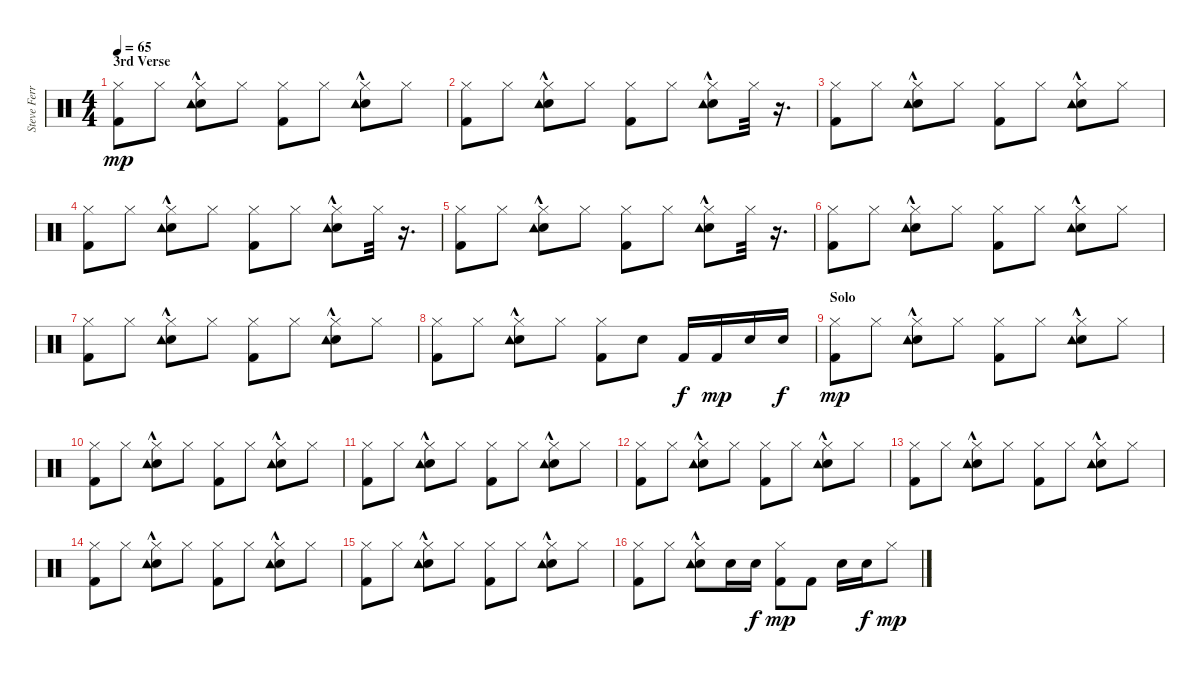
\track ("Steve Ferrone & Ray Cooper" "Steve Ferr") {instrument percussion}
\staff {score}
\articulation defaults
\ts (4 4)
\section ("" "3rd Verse")
\tempo 65
\clef neutral
\ks c
("Kick (hit) 2" "Hi-Hat (closed)").8{dy mp} "Hi-Hat (closed)".8 ("Hi-Hat (closed)" "Snare (hit) 2"{hac} "Tambourine (hit)"{hac}).8 "Hi-Hat (closed)".8 ("Kick (hit) 2" "Hi-Hat (closed)").8 "Hi-Hat (closed)".8 ("Hi-Hat (closed)" "Snare (hit) 2" "Tambourine (hit)"{hac}).8 "Hi-Hat (closed)".8 |
("Kick (hit) 2" "Hi-Hat (closed)").8 "Hi-Hat (closed)".8 ("Hi-Hat (closed)" "Snare (hit) 2"{hac} "Tambourine (hit)"{hac}).8 "Hi-Hat (closed)".8 ("Kick (hit) 2" "Hi-Hat (closed)").8 "Hi-Hat (closed)".8 ("Hi-Hat (closed)" "Snare (hit) 2" "Tambourine (hit)"{hac}).8 "Hi-Hat (closed)".32 r.16{d} |
("Kick (hit) 2" "Hi-Hat (closed)").8 "Hi-Hat (closed)".8 ("Hi-Hat (closed)" "Snare (hit) 2"{hac} "Tambourine (hit)"{hac}).8 "Hi-Hat (closed)".8 ("Kick (hit) 2" "Hi-Hat (closed)").8 "Hi-Hat (closed)".8 ("Hi-Hat (closed)" "Snare (hit) 2" "Tambourine (hit)"{hac}).8 "Hi-Hat (closed)".8 |
("Kick (hit) 2" "Hi-Hat (closed)").8 "Hi-Hat (closed)".8 ("Hi-Hat (closed)" "Snare (hit) 2"{hac} "Tambourine (hit)"{hac}).8 "Hi-Hat (closed)".8 ("Kick (hit) 2" "Hi-Hat (closed)").8 "Hi-Hat (closed)".8 ("Hi-Hat (closed)" "Snare (hit) 2" "Tambourine (hit)"{hac}).8 "Hi-Hat (closed)".32 r.16{d} |
("Kick (hit) 2" "Hi-Hat (closed)").8 "Hi-Hat (closed)".8 ("Hi-Hat (closed)" "Snare (hit) 2"{hac} "Tambourine (hit)"{hac}).8 "Hi-Hat (closed)".8 ("Kick (hit) 2" "Hi-Hat (closed)").8 "Hi-Hat (closed)".8 ("Hi-Hat (closed)" "Snare (hit) 2" "Tambourine (hit)"{hac}).8 "Hi-Hat (closed)".32 r.16{d} |
("Kick (hit) 2" "Hi-Hat (closed)").8 "Hi-Hat (closed)".8 ("Hi-Hat (closed)" "Snare (hit) 2"{hac} "Tambourine (hit)"{hac}).8 "Hi-Hat (closed)".8 ("Kick (hit) 2" "Hi-Hat (closed)").8 "Hi-Hat (closed)".8 ("Hi-Hat (closed)" "Snare (hit) 2" "Tambourine (hit)"{hac}).8 "Hi-Hat (closed)".8 |
("Kick (hit) 2" "Hi-Hat (closed)").8 "Hi-Hat (closed)".8 ("Hi-Hat (closed)" "Snare (hit) 2"{hac} "Tambourine (hit)"{hac}).8 "Hi-Hat (closed)".8 ("Kick (hit) 2" "Hi-Hat (closed)").8 "Hi-Hat (closed)".8 ("Hi-Hat (closed)" "Snare (hit) 2" "Tambourine (hit)"{hac}).8 "Hi-Hat (closed)".8 |
("Kick (hit) 2" "Hi-Hat (closed)").8 "Hi-Hat (closed)".8 ("Hi-Hat (closed)" "Snare (hit) 2"{hac} "Tambourine (hit)"{hac}).8 "Hi-Hat (closed)".8 ("Kick (hit) 2" "Hi-Hat (closed)").8 "Snare (hit) 2".8 "Kick (hit) 2".16{dy f} "Kick (hit) 2".16{dy mp} "Snare (hit) 2".16 "Snare (hit) 2".16{dy f} |
\section ("" "Solo")
("Kick (hit) 2" "Hi-Hat (closed)").8{dy mp} "Hi-Hat (closed)".8 ("Hi-Hat (closed)" "Snare (hit) 2"{hac} "Tambourine (hit)"{hac}).8 "Hi-Hat (closed)".8 ("Kick (hit) 2" "Hi-Hat (closed)").8 "Hi-Hat (closed)".8 ("Hi-Hat (closed)" "Snare (hit) 2" "Tambourine (hit)"{hac}).8 "Hi-Hat (closed)".8 |
("Kick (hit) 2" "Hi-Hat (closed)").8 "Hi-Hat (closed)".8 ("Hi-Hat (closed)" "Snare (hit) 2"{hac} "Tambourine (hit)"{hac}).8 "Hi-Hat (closed)".8 ("Kick (hit) 2" "Hi-Hat (closed)").8 "Hi-Hat (closed)".8 ("Hi-Hat (closed)" "Snare (hit) 2" "Tambourine (hit)"{hac}).8 "Hi-Hat (closed)".8 |
("Kick (hit) 2" "Hi-Hat (closed)").8 "Hi-Hat (closed)".8 ("Hi-Hat (closed)" "Snare (hit) 2"{hac} "Tambourine (hit)"{hac}).8 "Hi-Hat (closed)".8 ("Kick (hit) 2" "Hi-Hat (closed)").8 "Hi-Hat (closed)".8 ("Hi-Hat (closed)" "Snare (hit) 2" "Tambourine (hit)"{hac}).8 "Hi-Hat (closed)".8 |
("Kick (hit) 2" "Hi-Hat (closed)").8 "Hi-Hat (closed)".8 ("Hi-Hat (closed)" "Snare (hit) 2"{hac} "Tambourine (hit)"{hac}).8 "Hi-Hat (closed)".8 ("Kick (hit) 2" "Hi-Hat (closed)").8 "Hi-Hat (closed)".8 ("Hi-Hat (closed)" "Snare (hit) 2" "Tambourine (hit)"{hac}).8 "Hi-Hat (closed)".8 |
("Kick (hit) 2" "Hi-Hat (closed)").8 "Hi-Hat (closed)".8 ("Hi-Hat (closed)" "Snare (hit) 2"{hac} "Tambourine (hit)"{hac}).8 "Hi-Hat (closed)".8 ("Kick (hit) 2" "Hi-Hat (closed)").8 "Hi-Hat (closed)".8 ("Hi-Hat (closed)" "Snare (hit) 2" "Tambourine (hit)"{hac}).8 "Hi-Hat (closed)".8 |
("Kick (hit) 2" "Hi-Hat (closed)").8 "Hi-Hat (closed)".8 ("Hi-Hat (closed)" "Snare (hit) 2"{hac} "Tambourine (hit)"{hac}).8 "Hi-Hat (closed)".8 ("Kick (hit) 2" "Hi-Hat (closed)").8 "Hi-Hat (closed)".8 ("Hi-Hat (closed)" "Snare (hit) 2" "Tambourine (hit)"{hac}).8 "Hi-Hat (closed)".8 |
("Kick (hit) 2" "Hi-Hat (closed)").8 "Hi-Hat (closed)".8 ("Hi-Hat (closed)" "Snare (hit) 2"{hac} "Tambourine (hit)"{hac}).8 "Hi-Hat (closed)".8 ("Kick (hit) 2" "Hi-Hat (closed)").8 "Hi-Hat (closed)".8 ("Hi-Hat (closed)" "Snare (hit) 2" "Tambourine (hit)"{hac}).8 "Hi-Hat (closed)".8 |
("Kick (hit) 2" "Hi-Hat (closed)").8 "Hi-Hat (closed)".8 ("Hi-Hat (closed)" "Snare (hit) 2"{hac} "Tambourine (hit)"{hac}).8 "Snare (hit) 2".16 "Snare (hit) 2".16{dy f} ("Kick (hit) 2" "Hi-Hat (closed)").8{dy mp} "Kick (hit) 2".8 "Snare (hit) 2".16 "Snare (hit) 2".16{dy f} "Hi-Hat (closed)".8{dy mp}
